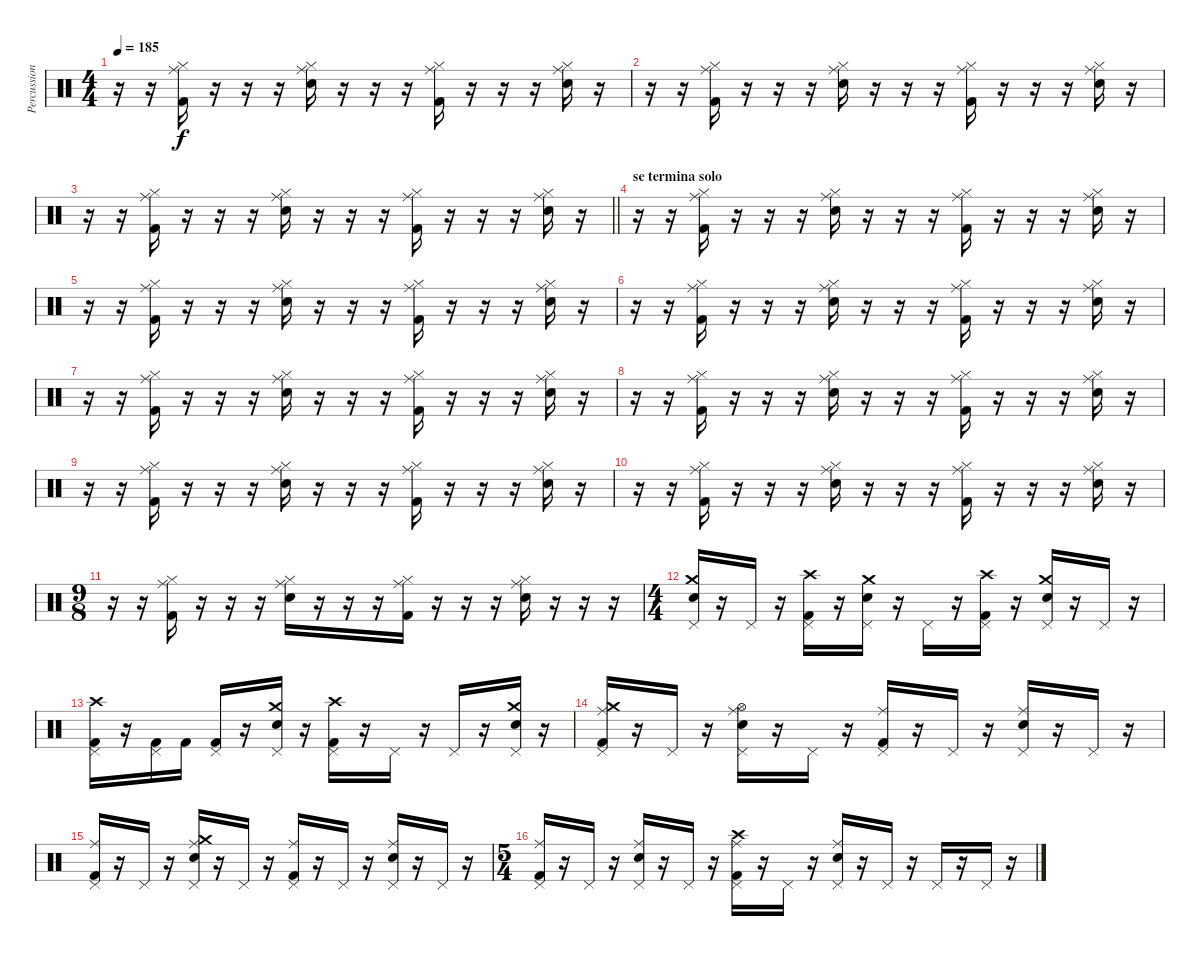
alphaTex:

\track ("Percussion" "Percussion") {instrument percussion}
\staff {score}
\articulation defaults
\ts (4 4)
\tempo 185
\clef neutral
\ks c
r.16{dy f} r.16 ("Ride (middle)" "Hi-Hat (closed)" "Kick (hit) 2").16 r.16 r.16 r.16 ("Ride (middle)" "Hi-Hat (closed)" "Snare (hit) 2").16 r.16 r.16 r.16 ("Ride (middle)" "Hi-Hat (closed)" "Kick (hit) 2").16 r.16 r.16 r.16 ("Ride (middle)" "Hi-Hat (closed)" "Snare (hit) 2").16 r.16 |
r.16 r.16 ("Ride (middle)" "Hi-Hat (closed)" "Kick (hit) 2").16 r.16 r.16 r.16 ("Ride (middle)" "Hi-Hat (closed)" "Snare (hit) 2").16 r.16 r.16 r.16 ("Ride (middle)" "Hi-Hat (closed)" "Kick (hit) 2").16 r.16 r.16 r.16 ("Ride (middle)" "Hi-Hat (closed)" "Snare (hit) 2").16 r.16 |
\barLineRight lightlight
r.16 r.16 ("Ride (middle)" "Hi-Hat (closed)" "Kick (hit) 2").16 r.16 r.16 r.16 ("Ride (middle)" "Hi-Hat (closed)" "Snare (hit) 2").16 r.16 r.16 r.16 ("Ride (middle)" "Hi-Hat (closed)" "Kick (hit) 2").16 r.16 r.16 r.16 ("Ride (middle)" "Hi-Hat (closed)" "Snare (hit) 2").16 r.16 |
\section ("" "se termina solo")
r.16 r.16 ("Ride (middle)" "Hi-Hat (closed)" "Kick (hit) 2").16 r.16 r.16 r.16 ("Ride (middle)" "Hi-Hat (closed)" "Snare (hit) 2").16 r.16 r.16 r.16 ("Ride (middle)" "Hi-Hat (closed)" "Kick (hit) 2").16 r.16 r.16 r.16 ("Ride (middle)" "Hi-Hat (closed)" "Snare (hit) 2").16 r.16 |
r.16 r.16 ("Ride (middle)" "Hi-Hat (closed)" "Kick (hit) 2").16 r.16 r.16 r.16 ("Ride (middle)" "Hi-Hat (closed)" "Snare (hit) 2").16 r.16 r.16 r.16 ("Ride (middle)" "Hi-Hat (closed)" "Kick (hit) 2").16 r.16 r.16 r.16 ("Ride (middle)" "Hi-Hat (closed)" "Snare (hit) 2").16 r.16 |
r.16 r.16 ("Ride (middle)" "Hi-Hat (closed)" "Kick (hit) 2").16 r.16 r.16 r.16 ("Ride (middle)" "Hi-Hat (closed)" "Snare (hit) 2").16 r.16 r.16 r.16 ("Ride (middle)" "Hi-Hat (closed)" "Kick (hit) 2").16 r.16 r.16 r.16 ("Ride (middle)" "Hi-Hat (closed)" "Snare (hit) 2").16 r.16 |
r.16 r.16 ("Ride (middle)" "Hi-Hat (closed)" "Kick (hit) 2").16 r.16 r.16 r.16 ("Ride (middle)" "Hi-Hat (closed)" "Snare (hit) 2").16 r.16 r.16 r.16 ("Ride (middle)" "Hi-Hat (closed)" "Kick (hit) 2").16 r.16 r.16 r.16 ("Ride (middle)" "Hi-Hat (closed)" "Snare (hit) 2").16 r.16 |
r.16 r.16 ("Ride (middle)" "Hi-Hat (closed)" "Kick (hit) 2").16 r.16 r.16 r.16 ("Ride (middle)" "Hi-Hat (closed)" "Snare (hit) 2").16 r.16 r.16 r.16 ("Ride (middle)" "Hi-Hat (closed)" "Kick (hit) 2").16 r.16 r.16 r.16 ("Ride (middle)" "Hi-Hat (closed)" "Snare (hit) 2").16 r.16 |
r.16 r.16 ("Ride (middle)" "Hi-Hat (closed)" "Kick (hit) 2").16 r.16 r.16 r.16 ("Ride (middle)" "Hi-Hat (closed)" "Snare (hit) 2").16 r.16 r.16 r.16 ("Ride (middle)" "Hi-Hat (closed)" "Kick (hit) 2").16 r.16 r.16 r.16 ("Ride (middle)" "Hi-Hat (closed)" "Snare (hit) 2").16 r.16 |
r.16 r.16 ("Ride (middle)" "Hi-Hat (closed)" "Kick (hit) 2").16 r.16 r.16 r.16 ("Ride (middle)" "Hi-Hat (closed)" "Snare (hit) 2").16 r.16 r.16 r.16 ("Ride (middle)" "Hi-Hat (closed)" "Kick (hit) 2").16 r.16 r.16 r.16 ("Ride (middle)" "Hi-Hat (closed)" "Snare (hit) 2").16 r.16 |
\ts (9 8)
r.16 r.16 ("Ride (middle)" "Hi-Hat (closed)" "Kick (hit) 2").16 r.16 r.16 r.16 ("Ride (middle)" "Hi-Hat (closed)" "Snare (hit) 2").16 r.16 r.16 r.16 ("Ride (middle)" "Hi-Hat (closed)" "Kick (hit) 2").16 r.16 r.16 r.16 ("Ride (middle)" "Hi-Hat (closed)" "Snare (hit) 2").16 r.16 r.16 r.16 |
\ts (4 4)
("Crash medium (hit)" "Snare (hit) 2" "Pedal Hi-Hat (hit)").16 r.16 "Pedal Hi-Hat (hit)".16 r.16 ("Crash high (hit)" "Kick (hit) 2" "Pedal Hi-Hat (hit)").16 r.16 ("Crash medium (hit)" "Snare (hit) 2" "Pedal Hi-Hat (hit)").16 r.16 "Pedal Hi-Hat (hit)".16 r.16 ("Crash high (hit)" "Kick (hit) 2" "Pedal Hi-Hat (hit)").16 r.16 ("Crash medium (hit)" "Snare (hit) 2" "Pedal Hi-Hat (hit)").16 r.16 "Pedal Hi-Hat (hit)".16 r.16 |
("Crash high (hit)" "Kick (hit) 2" "Pedal Hi-Hat (hit)").16 r.16 ("Kick (hit) 2" "Pedal Hi-Hat (hit)").16 "Kick (hit) 2".16 ("Kick (hit) 2" "Pedal Hi-Hat (hit)").16 r.16 ("Crash medium (hit)" "Snare (hit) 2" "Pedal Hi-Hat (hit)").16 r.16 ("Crash high (hit)" "Kick (hit) 2" "Pedal Hi-Hat (hit)").16 r.16 "Pedal Hi-Hat (hit)".16 r.16 "Pedal Hi-Hat (hit)".16 r.16 ("Crash medium (hit)" "Snare (hit) 2" "Pedal Hi-Hat (hit)").16 r.16 |
("Ride (middle)" "Crash medium (hit)" "Pedal Hi-Hat (hit)" "Kick (hit) 2").16 r.16 "Pedal Hi-Hat (hit)".16 r.16 ("Ride (middle)" "Hi-Hat (open)" "Pedal Hi-Hat (hit)" "Snare (hit) 2").16 r.16 "Pedal Hi-Hat (hit)".16 r.16 ("Ride (middle)" "Pedal Hi-Hat (hit)" "Kick (hit) 2").16 r.16 "Pedal Hi-Hat (hit)".16 r.16 ("Ride (middle)" "Pedal Hi-Hat (hit)" "Snare (hit) 2").16 r.16 "Pedal Hi-Hat (hit)".16 r.16 |
("Ride (middle)" "Pedal Hi-Hat (hit)" "Kick (hit) 2").16 r.16 "Pedal Hi-Hat (hit)".16 r.16 ("Ride (middle)" "Crash medium (hit)" "Pedal Hi-Hat (hit)" "Snare (hit) 2").16 r.16 "Pedal Hi-Hat (hit)".16 r.16 ("Ride (middle)" "Pedal Hi-Hat (hit)" "Kick (hit) 2").16 r.16 "Pedal Hi-Hat (hit)".16 r.16 ("Ride (middle)" "Pedal Hi-Hat (hit)" "Snare (hit) 2").16 r.16 "Pedal Hi-Hat (hit)".16 r.16 |
\ts (5 4)
("Ride (middle)" "Pedal Hi-Hat (hit)" "Kick (hit) 2").16 r.16 "Pedal Hi-Hat (hit)".16 r.16 ("Ride (middle)" "Pedal Hi-Hat (hit)" "Snare (hit) 2").16 r.16 "Pedal Hi-Hat (hit)".16 r.16 ("Ride (middle)" "Crash high (hit)" "Pedal Hi-Hat (hit)" "Kick (hit) 2").16 r.16 "Pedal Hi-Hat (hit)".16 r.16 ("Ride (middle)" "Pedal Hi-Hat (hit)" "Snare (hit) 2").16 r.16 "Pedal Hi-Hat (hit)".16 r.16 "Pedal Hi-Hat (hit)".16 r.16 "Pedal Hi-Hat (hit)".16 r.16
